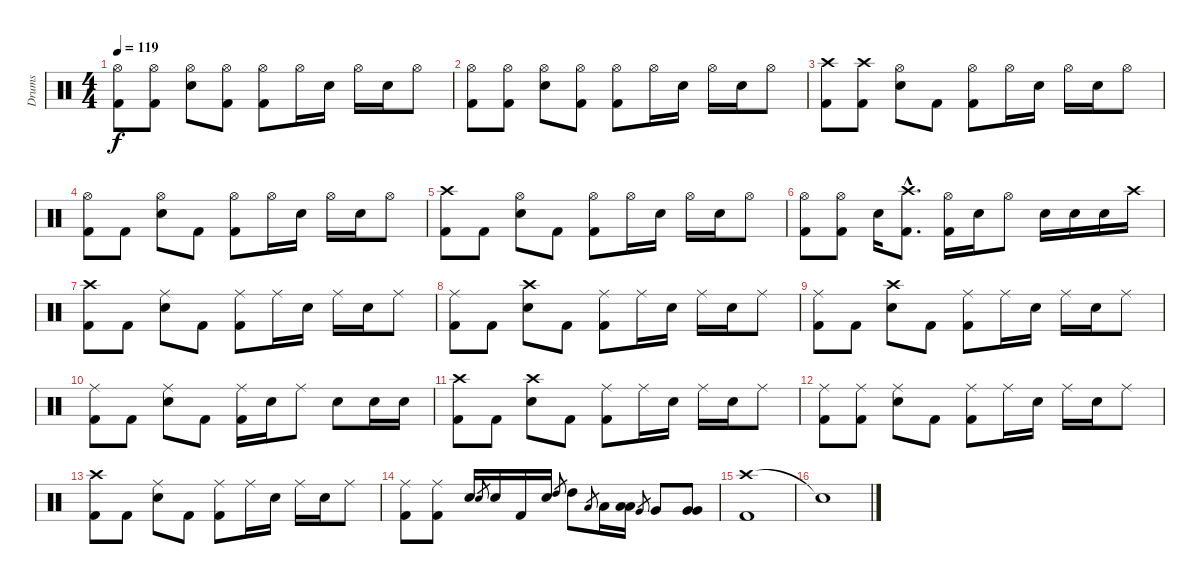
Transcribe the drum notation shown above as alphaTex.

\track ("Drums" "Drums") {instrument percussion}
\staff {score}
\articulation defaults
\ts (4 4)
\tempo 119
\clef neutral
\ks c
("Hi-Hat (open)" "Kick (hit) 2").8{dy f} ("Hi-Hat (open)" "Kick (hit) 2").8 ("Hi-Hat (open)" "Electric Snare (hit)").8 ("Hi-Hat (open)" "Kick (hit) 2").8 ("Hi-Hat (open)" "Kick (hit) 2").8 "Hi-Hat (open)".16 "Electric Snare (hit)".16 "Hi-Hat (open)".16 "Electric Snare (hit)".16 "Hi-Hat (open)".8 |
("Hi-Hat (open)" "Kick (hit) 2").8 ("Hi-Hat (open)" "Kick (hit) 2").8 ("Hi-Hat (open)" "Electric Snare (hit)").8 ("Hi-Hat (open)" "Kick (hit) 2").8 ("Hi-Hat (open)" "Kick (hit) 2").8 "Hi-Hat (open)".16 "Electric Snare (hit)".16 "Hi-Hat (open)".16 "Electric Snare (hit)".16 "Hi-Hat (open)".8 |
("Crash high (hit)" "Kick (hit) 2").8 ("Crash high (hit)" "Kick (hit) 2").8 ("Hi-Hat (open)" "Electric Snare (hit)").8 "Kick (hit) 2".8 ("Hi-Hat (open)" "Kick (hit) 2").8 "Hi-Hat (open)".16 "Electric Snare (hit)".16 "Hi-Hat (open)".16 "Electric Snare (hit)".16 "Hi-Hat (open)".8 |
("Hi-Hat (open)" "Kick (hit) 2").8 "Kick (hit) 2".8 ("Hi-Hat (open)" "Electric Snare (hit)").8 "Kick (hit) 2".8 ("Hi-Hat (open)" "Kick (hit) 2").8 "Hi-Hat (open)".16 "Electric Snare (hit)".16 "Hi-Hat (open)".16 "Electric Snare (hit)".16 "Hi-Hat (open)".8 |
("Crash high (hit)" "Kick (hit) 2").8 "Kick (hit) 2".8 ("Hi-Hat (open)" "Electric Snare (hit)").8 "Kick (hit) 2".8 ("Hi-Hat (open)" "Kick (hit) 2").8 "Hi-Hat (open)".16 "Electric Snare (hit)".16 "Hi-Hat (open)".16 "Electric Snare (hit)".16 "Hi-Hat (open)".8 |
("Hi-Hat (open)" "Kick (hit) 2").8 ("Hi-Hat (open)" "Kick (hit) 2").8 "Electric Snare (hit)".16 ("Crash high (hit)"{hac} "Kick (hit) 2"{hac}).8{d} ("Hi-Hat (open)" "Kick (hit) 2").16 "Electric Snare (hit)".16 "Hi-Hat (open)".8 "Electric Snare (hit)".16 "Electric Snare (hit)".16 "Electric Snare (hit)".16 "Crash high (hit)".16 |
("Crash high (hit)" "Kick (hit) 2").8 "Kick (hit) 2".8 ("Ride (middle)" "Electric Snare (hit)").8 "Kick (hit) 2".8 ("Ride (middle)" "Kick (hit) 2").8 "Ride (middle)".16 "Electric Snare (hit)".16 "Ride (middle)".16 "Electric Snare (hit)".16 "Ride (middle)".8 |
("Ride (middle)" "Kick (hit) 2").8 "Kick (hit) 2".8 ("Crash high (hit)" "Electric Snare (hit)").8 "Kick (hit) 2".8 ("Ride (middle)" "Kick (hit) 2").8 "Ride (middle)".16 "Electric Snare (hit)".16 "Ride (middle)".16 "Electric Snare (hit)".16 "Ride (middle)".8 |
("Ride (middle)" "Kick (hit) 2").8 "Kick (hit) 2".8 ("Crash high (hit)" "Electric Snare (hit)").8 "Kick (hit) 2".8 ("Ride (middle)" "Kick (hit) 2").8 "Ride (middle)".16 "Electric Snare (hit)".16 "Ride (middle)".16 "Electric Snare (hit)".16 "Ride (middle)".8 |
("Ride (middle)" "Kick (hit) 2").8 "Kick (hit) 2".8 ("Ride (middle)" "Electric Snare (hit)").8 "Kick (hit) 2".8 ("Ride (middle)" "Kick (hit) 2").16 "Electric Snare (hit)".16 "Ride (middle)".8 "Electric Snare (hit)".8 "Electric Snare (hit)".16 "Electric Snare (hit)".16 |
("Crash high (hit)" "Kick (hit) 2").8 "Kick (hit) 2".8 ("Crash high (hit)" "Electric Snare (hit)").8 "Kick (hit) 2".8 ("Ride (middle)" "Kick (hit) 2").8 "Ride (middle)".16 "Electric Snare (hit)".16 "Ride (middle)".16 "Electric Snare (hit)".16 "Ride (middle)".8 |
("Ride (middle)" "Kick (hit) 2").8 ("Ride (middle)" "Kick (hit) 2").8 ("Ride (middle)" "Electric Snare (hit)").8 "Kick (hit) 2".8 ("Ride (middle)" "Kick (hit) 2").8 "Ride (middle)".16 "Electric Snare (hit)".16 "Ride (middle)".16 "Electric Snare (hit)".16 "Ride (middle)".8 |
("Crash high (hit)" "Kick (hit) 2").8 "Kick (hit) 2".8 ("Ride (middle)" "Electric Snare (hit)").8 "Kick (hit) 2".8 ("Ride (middle)" "Kick (hit) 2").8 "Ride (middle)".16 "Electric Snare (hit)".16 "Ride (middle)".16 "Electric Snare (hit)".16 "Ride (middle)".8 |
("Ride (middle)" "Kick (hit) 2").8 ("Ride (middle)" "Kick (hit) 2").8 "Electric Snare (hit)".16 "Electric Snare (hit)".8{gr} "Electric Snare (hit)".16 "Kick (hit) 2".16 "Electric Snare (hit)".16 "High Tom (hit)".8{gr} "High Tom (hit)".8 "Low Tom (hit)".8{gr} "Low Tom (hit)".16 ("Low Tom (hit)" "Low Tom (hit)").16 "Very Low Tom (hit)".8{gr} "Very Low Tom (hit)".8 ("Very Low Tom (hit)" "Very Low Tom (hit)").8 |
("Crash high (hit)" "Kick (hit) 2").1 |
"Snare (hit)"{t}.1
